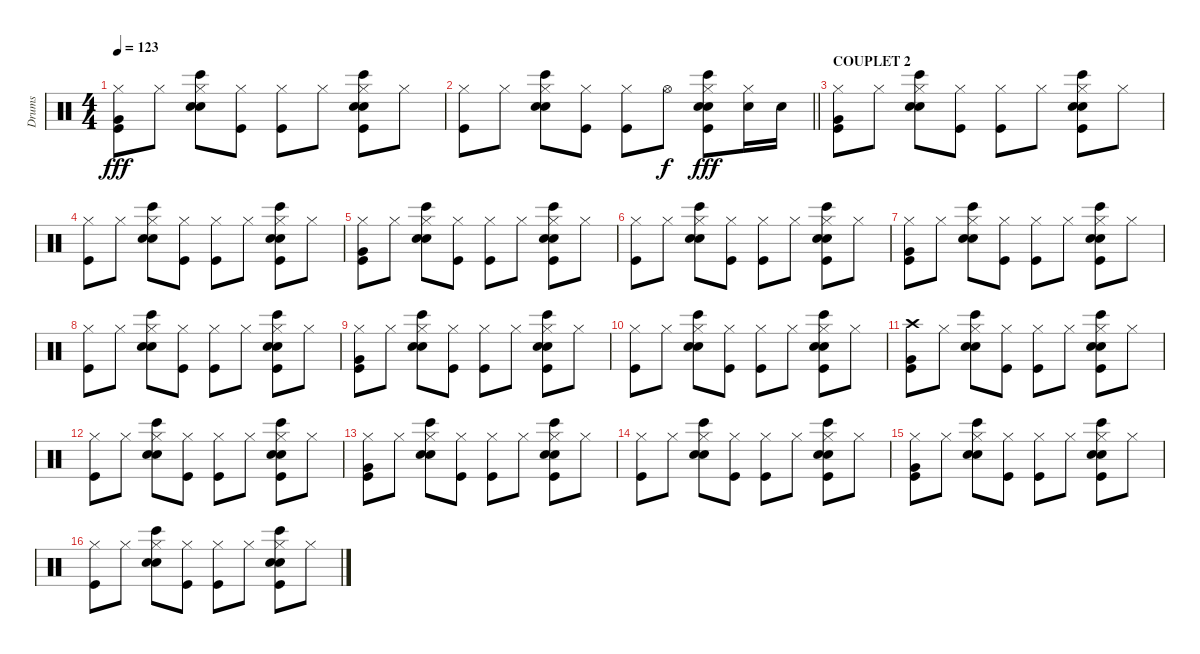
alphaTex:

\track ("Drums" "Drums") {instrument percussion}
\staff {score}
\articulation defaults
\ts (4 4)
\tempo 123
\clef neutral
\ks c
("Kick (hit)" "Hi-Hat (closed)" "Very Low Tom (hit)").8{dy fff} "Hi-Hat (closed)".8 ("Hi-Hat (closed)" "Bongo High (hit)" "Hand Clap (hit)" "Electric Snare (hit)").8 ("Kick (hit)" "Hi-Hat (closed)").8 ("Hi-Hat (closed)" "Kick (hit)").8 "Hi-Hat (closed)".8 ("Hi-Hat (closed)" "Kick (hit)" "Electric Snare (hit)" "Hand Clap (hit)" "Bongo High (hit)").8 "Hi-Hat (closed)".8 |
\barLineRight lightlight
("Hi-Hat (closed)" "Kick (hit)").8 "Hi-Hat (closed)".8 ("Hi-Hat (closed)" "Electric Snare (hit)" "Bongo High (hit)" "Hand Clap (hit)").8 ("Hi-Hat (closed)" "Kick (hit)").8 ("Hi-Hat (closed)" "Kick (hit)").8 "Hi-Hat (open)".8{dy f} ("Hi-Hat (closed)" "Bongo High (hit)" "Electric Snare (hit)" "Kick (hit)" "Hand Clap (hit)").8{dy fff} ("Electric Snare (hit)" "Hi-Hat (closed)").16 "Electric Snare (hit)".16 |
\section ("" "COUPLET 2")
("Kick (hit)" "Hi-Hat (closed)" "Very Low Tom (hit)").8 "Hi-Hat (closed)".8 ("Hi-Hat (closed)" "Bongo High (hit)" "Hand Clap (hit)" "Electric Snare (hit)").8 ("Kick (hit)" "Hi-Hat (closed)").8 ("Hi-Hat (closed)" "Kick (hit)").8 "Hi-Hat (closed)".8 ("Hi-Hat (closed)" "Kick (hit)" "Electric Snare (hit)" "Hand Clap (hit)" "Bongo High (hit)").8 "Hi-Hat (closed)".8 |
("Hi-Hat (closed)" "Kick (hit)").8 "Hi-Hat (closed)".8 ("Hi-Hat (closed)" "Electric Snare (hit)" "Bongo High (hit)" "Hand Clap (hit)").8 ("Hi-Hat (closed)" "Kick (hit)").8 ("Hi-Hat (closed)" "Kick (hit)").8 "Hi-Hat (closed)".8 ("Hi-Hat (closed)" "Kick (hit)" "Electric Snare (hit)" "Bongo High (hit)" "Hand Clap (hit)").8 "Hi-Hat (closed)".8 |
("Kick (hit)" "Hi-Hat (closed)" "Very Low Tom (hit)").8 "Hi-Hat (closed)".8 ("Hi-Hat (closed)" "Bongo High (hit)" "Hand Clap (hit)" "Electric Snare (hit)").8 ("Kick (hit)" "Hi-Hat (closed)").8 ("Hi-Hat (closed)" "Kick (hit)").8 "Hi-Hat (closed)".8 ("Hi-Hat (closed)" "Kick (hit)" "Electric Snare (hit)" "Hand Clap (hit)" "Bongo High (hit)").8 "Hi-Hat (closed)".8 |
("Hi-Hat (closed)" "Kick (hit)").8 "Hi-Hat (closed)".8 ("Hi-Hat (closed)" "Electric Snare (hit)" "Bongo High (hit)" "Hand Clap (hit)").8 ("Hi-Hat (closed)" "Kick (hit)").8 ("Hi-Hat (closed)" "Kick (hit)").8 "Hi-Hat (closed)".8 ("Hi-Hat (closed)" "Kick (hit)" "Electric Snare (hit)" "Bongo High (hit)" "Hand Clap (hit)").8 "Hi-Hat (closed)".8 |
("Kick (hit)" "Hi-Hat (closed)" "Very Low Tom (hit)").8 "Hi-Hat (closed)".8 ("Hi-Hat (closed)" "Bongo High (hit)" "Hand Clap (hit)" "Electric Snare (hit)").8 ("Kick (hit)" "Hi-Hat (closed)").8 ("Hi-Hat (closed)" "Kick (hit)").8 "Hi-Hat (closed)".8 ("Hi-Hat (closed)" "Kick (hit)" "Electric Snare (hit)" "Hand Clap (hit)" "Bongo High (hit)").8 "Hi-Hat (closed)".8 |
("Hi-Hat (closed)" "Kick (hit)").8 "Hi-Hat (closed)".8 ("Hi-Hat (closed)" "Electric Snare (hit)" "Bongo High (hit)" "Hand Clap (hit)").8 ("Hi-Hat (closed)" "Kick (hit)").8 ("Hi-Hat (closed)" "Kick (hit)").8 "Hi-Hat (closed)".8 ("Hi-Hat (closed)" "Kick (hit)" "Electric Snare (hit)" "Bongo High (hit)" "Hand Clap (hit)").8 "Hi-Hat (closed)".8 |
("Kick (hit)" "Hi-Hat (closed)" "Very Low Tom (hit)").8 "Hi-Hat (closed)".8 ("Hi-Hat (closed)" "Bongo High (hit)" "Hand Clap (hit)" "Electric Snare (hit)").8 ("Kick (hit)" "Hi-Hat (closed)").8 ("Hi-Hat (closed)" "Kick (hit)").8 "Hi-Hat (closed)".8 ("Hi-Hat (closed)" "Kick (hit)" "Electric Snare (hit)" "Hand Clap (hit)" "Bongo High (hit)").8 "Hi-Hat (closed)".8 |
("Hi-Hat (closed)" "Kick (hit)").8 "Hi-Hat (closed)".8 ("Hi-Hat (closed)" "Electric Snare (hit)" "Bongo High (hit)" "Hand Clap (hit)").8 ("Hi-Hat (closed)" "Kick (hit)").8 ("Hi-Hat (closed)" "Kick (hit)").8 "Hi-Hat (closed)".8 ("Hi-Hat (closed)" "Kick (hit)" "Electric Snare (hit)" "Bongo High (hit)" "Hand Clap (hit)").8 "Hi-Hat (closed)".8 |
("Kick (hit)" "Crash high (hit)" "Very Low Tom (hit)").8 "Hi-Hat (closed)".8 ("Hi-Hat (closed)" "Bongo High (hit)" "Hand Clap (hit)" "Electric Snare (hit)").8 ("Kick (hit)" "Hi-Hat (closed)").8 ("Hi-Hat (closed)" "Kick (hit)").8 "Hi-Hat (closed)".8 ("Hi-Hat (closed)" "Kick (hit)" "Electric Snare (hit)" "Hand Clap (hit)" "Bongo High (hit)").8 "Hi-Hat (closed)".8 |
("Hi-Hat (closed)" "Kick (hit)").8 "Hi-Hat (closed)".8 ("Hi-Hat (closed)" "Electric Snare (hit)" "Bongo High (hit)" "Hand Clap (hit)").8 ("Hi-Hat (closed)" "Kick (hit)").8 ("Hi-Hat (closed)" "Kick (hit)").8 "Hi-Hat (closed)".8 ("Hi-Hat (closed)" "Kick (hit)" "Electric Snare (hit)" "Bongo High (hit)" "Hand Clap (hit)").8 "Hi-Hat (closed)".8 |
("Kick (hit)" "Hi-Hat (closed)" "Very Low Tom (hit)").8 "Hi-Hat (closed)".8 ("Hi-Hat (closed)" "Bongo High (hit)" "Hand Clap (hit)" "Electric Snare (hit)").8 ("Kick (hit)" "Hi-Hat (closed)").8 ("Hi-Hat (closed)" "Kick (hit)").8 "Hi-Hat (closed)".8 ("Hi-Hat (closed)" "Kick (hit)" "Electric Snare (hit)" "Hand Clap (hit)" "Bongo High (hit)").8 "Hi-Hat (closed)".8 |
("Hi-Hat (closed)" "Kick (hit)").8 "Hi-Hat (closed)".8 ("Hi-Hat (closed)" "Electric Snare (hit)" "Bongo High (hit)" "Hand Clap (hit)").8 ("Hi-Hat (closed)" "Kick (hit)").8 ("Hi-Hat (closed)" "Kick (hit)").8 "Hi-Hat (closed)".8 ("Hi-Hat (closed)" "Kick (hit)" "Electric Snare (hit)" "Bongo High (hit)" "Hand Clap (hit)").8 "Hi-Hat (closed)".8 |
("Kick (hit)" "Hi-Hat (closed)" "Very Low Tom (hit)").8 "Hi-Hat (closed)".8 ("Hi-Hat (closed)" "Bongo High (hit)" "Hand Clap (hit)" "Electric Snare (hit)").8 ("Kick (hit)" "Hi-Hat (closed)").8 ("Hi-Hat (closed)" "Kick (hit)").8 "Hi-Hat (closed)".8 ("Hi-Hat (closed)" "Kick (hit)" "Electric Snare (hit)" "Hand Clap (hit)" "Bongo High (hit)").8 "Hi-Hat (closed)".8 |
("Hi-Hat (closed)" "Kick (hit)").8 "Hi-Hat (closed)".8 ("Hi-Hat (closed)" "Electric Snare (hit)" "Bongo High (hit)" "Hand Clap (hit)").8 ("Hi-Hat (closed)" "Kick (hit)").8 ("Hi-Hat (closed)" "Kick (hit)").8 "Hi-Hat (closed)".8 ("Hi-Hat (closed)" "Kick (hit)" "Electric Snare (hit)" "Bongo High (hit)" "Hand Clap (hit)").8 "Hi-Hat (closed)".8
